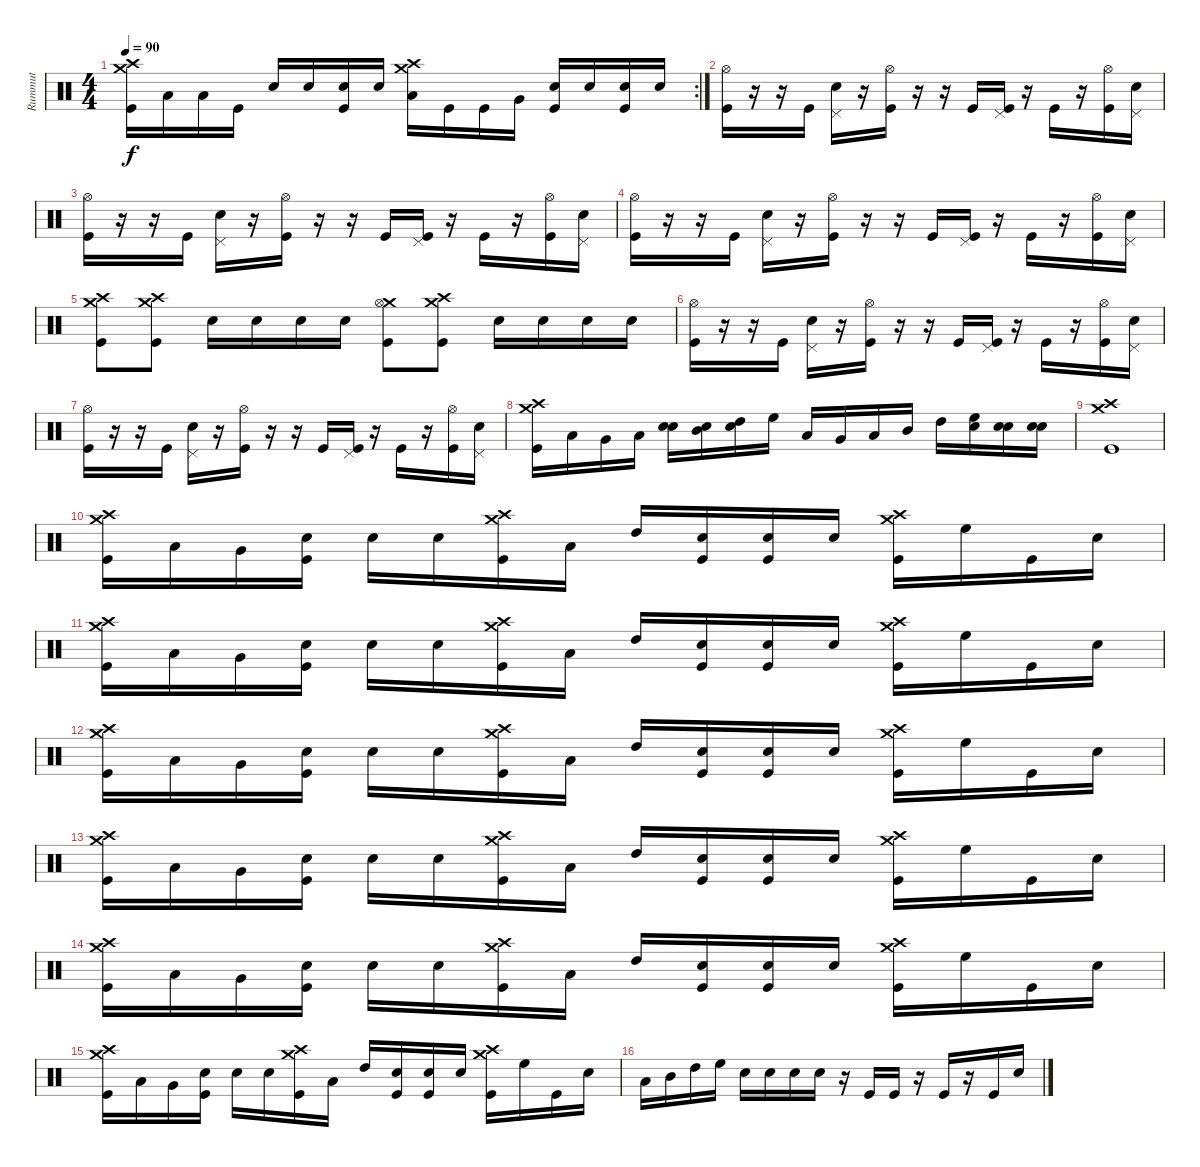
\track ("Rummut" "Rummut") {instrument percussion}
\staff {score}
\articulation defaults
\rc 2
\ts (4 4)
\tempo 90
\clef neutral
\ks c
("Crash medium (hit)" "Crash high (hit)" "Kick (hit)").16{dy f} "Low Tom (hit)".16 "Low Floor Tom (hit)".16 "Kick (hit)".16 "Snare (hit) 2".16 "Snare (hit) 2".16 ("Snare (hit) 2" "Kick (hit)").16 "Snare (hit) 2".16 ("Crash medium (hit)" "Crash high (hit)" "Low Floor Tom (hit)").16 "Kick (hit)".16 "Kick (hit)".16 "Very Low Tom (hit)".16 ("Snare (hit) 2" "Kick (hit)").16 "Snare (hit) 2".16 ("Snare (hit) 2" "Kick (hit)").16 "Snare (hit) 2".16 |
("Hi-Hat (open)" "Kick (hit)").16 r.16 r.16 "Kick (hit)".16 ("Pedal Hi-Hat (hit)" "Snare (hit) 2").16 r.16 ("Hi-Hat (open)" "Kick (hit)").16 r.16 r.16 "Kick (hit)".16 ("Pedal Hi-Hat (hit)" "Kick (hit)").16 r.16 "Kick (hit)".16 r.16 ("Hi-Hat (open)" "Kick (hit)").16 ("Pedal Hi-Hat (hit)" "Snare (hit) 2").16 |
("Hi-Hat (open)" "Kick (hit)").16 r.16 r.16 "Kick (hit)".16 ("Pedal Hi-Hat (hit)" "Snare (hit) 2").16 r.16 ("Hi-Hat (open)" "Kick (hit)").16 r.16 r.16 "Kick (hit)".16 ("Pedal Hi-Hat (hit)" "Kick (hit)").16 r.16 "Kick (hit)".16 r.16 ("Hi-Hat (open)" "Kick (hit)").16 ("Pedal Hi-Hat (hit)" "Snare (hit) 2").16 |
("Hi-Hat (open)" "Kick (hit)").16 r.16 r.16 "Kick (hit)".16 ("Pedal Hi-Hat (hit)" "Snare (hit) 2").16 r.16 ("Hi-Hat (open)" "Kick (hit)").16 r.16 r.16 "Kick (hit)".16 ("Pedal Hi-Hat (hit)" "Kick (hit)").16 r.16 "Kick (hit)".16 r.16 ("Hi-Hat (open)" "Kick (hit)").16 ("Pedal Hi-Hat (hit)" "Snare (hit) 2").16 |
("Crash medium (hit)" "Crash high (hit)" "Kick (hit)").8 ("Crash high (hit)" "Crash medium (hit)" "Kick (hit)").8 "Snare (hit) 2".16 "Snare (hit) 2".16 "Snare (hit) 2".16 "Snare (hit) 2".16 ("Crash medium (hit)" "Hi-Hat (open)" "Kick (hit)").8 ("Crash medium (hit)" "Crash high (hit)" "Kick (hit)").8 "Snare (hit) 2".16 "Snare (hit) 2".16 "Snare (hit) 2".16 "Snare (hit) 2".16 |
("Hi-Hat (open)" "Kick (hit)").16 r.16 r.16 "Kick (hit)".16 ("Pedal Hi-Hat (hit)" "Snare (hit) 2").16 r.16 ("Hi-Hat (open)" "Kick (hit)").16 r.16 r.16 "Kick (hit)".16 ("Pedal Hi-Hat (hit)" "Kick (hit)").16 r.16 "Kick (hit)".16 r.16 ("Hi-Hat (open)" "Kick (hit)").16 ("Pedal Hi-Hat (hit)" "Snare (hit) 2").16 |
("Hi-Hat (open)" "Kick (hit)").16 r.16 r.16 "Kick (hit)".16 ("Pedal Hi-Hat (hit)" "Snare (hit) 2").16 r.16 ("Hi-Hat (open)" "Kick (hit)").16 r.16 r.16 "Kick (hit)".16 ("Pedal Hi-Hat (hit)" "Kick (hit)").16 r.16 "Kick (hit)".16 r.16 ("Hi-Hat (open)" "Kick (hit)").16 ("Pedal Hi-Hat (hit)" "Snare (hit) 2").16 |
("Crash medium (hit)" "Crash high (hit)" "Kick (hit)").16 "Low Floor Tom (hit)".16 "Very Low Tom (hit)".16 "Low Tom (hit)".16 ("Snare (hit) 2" "Snare (hit) 2").16 ("Snare (hit) 2" "Mid Tom (hit)").16 ("Snare (hit) 2" "High Tom (hit)").16 "High Floor Tom (hit)".16 "Low Floor Tom (hit)".16 "Very Low Tom (hit)".16 "Low Tom (hit)".16 "Mid Tom (hit)".16 "High Tom (hit)".16 ("Snare (hit) 2" "High Floor Tom (hit)").16 ("Snare (hit) 2" "Snare (hit) 2").16 ("Snare (hit) 2" "Snare (hit) 2").16 |
("Crash medium (hit)" "Crash high (hit)" "Kick (hit)").1 |
("Crash medium (hit)" "Crash high (hit)" "Kick (hit)").16 "Low Floor Tom (hit)".16 "Very Low Tom (hit)".16 ("Snare (hit) 2" "Kick (hit)").16 "Snare (hit) 2".16 "Snare (hit) 2".16 ("Crash medium (hit)" "Crash high (hit)" "Kick (hit)").16 "Low Tom (hit)".16 "High Tom (hit)".16 ("Snare (hit) 2" "Kick (hit)").16 ("Snare (hit) 2" "Kick (hit)").16 "Snare (hit) 2".16 ("Crash medium (hit)" "Crash high (hit)" "Kick (hit)").16 "High Floor Tom (hit)".16 "Kick (hit)".16 "Snare (hit) 2".16 |
("Crash medium (hit)" "Crash high (hit)" "Kick (hit)").16 "Low Floor Tom (hit)".16 "Very Low Tom (hit)".16 ("Snare (hit) 2" "Kick (hit)").16 "Snare (hit) 2".16 "Snare (hit) 2".16 ("Crash medium (hit)" "Crash high (hit)" "Kick (hit)").16 "Low Tom (hit)".16 "High Tom (hit)".16 ("Snare (hit) 2" "Kick (hit)").16 ("Snare (hit) 2" "Kick (hit)").16 "Snare (hit) 2".16 ("Crash medium (hit)" "Crash high (hit)" "Kick (hit)").16 "High Floor Tom (hit)".16 "Kick (hit)".16 "Snare (hit) 2".16 |
("Crash medium (hit)" "Crash high (hit)" "Kick (hit)").16 "Low Floor Tom (hit)".16 "Very Low Tom (hit)".16 ("Snare (hit) 2" "Kick (hit)").16 "Snare (hit) 2".16 "Snare (hit) 2".16 ("Crash medium (hit)" "Crash high (hit)" "Kick (hit)").16 "Low Tom (hit)".16 "High Tom (hit)".16 ("Snare (hit) 2" "Kick (hit)").16 ("Snare (hit) 2" "Kick (hit)").16 "Snare (hit) 2".16 ("Crash medium (hit)" "Crash high (hit)" "Kick (hit)").16 "High Floor Tom (hit)".16 "Kick (hit)".16 "Snare (hit) 2".16 |
("Crash medium (hit)" "Crash high (hit)" "Kick (hit)").16 "Low Floor Tom (hit)".16 "Very Low Tom (hit)".16 ("Snare (hit) 2" "Kick (hit)").16 "Snare (hit) 2".16 "Snare (hit) 2".16 ("Crash medium (hit)" "Crash high (hit)" "Kick (hit)").16 "Low Tom (hit)".16 "High Tom (hit)".16 ("Snare (hit) 2" "Kick (hit)").16 ("Snare (hit) 2" "Kick (hit)").16 "Snare (hit) 2".16 ("Crash medium (hit)" "Crash high (hit)" "Kick (hit)").16 "High Floor Tom (hit)".16 "Kick (hit)".16 "Snare (hit) 2".16 |
("Crash medium (hit)" "Crash high (hit)" "Kick (hit)").16 "Low Floor Tom (hit)".16 "Very Low Tom (hit)".16 ("Snare (hit) 2" "Kick (hit)").16 "Snare (hit) 2".16 "Snare (hit) 2".16 ("Crash medium (hit)" "Crash high (hit)" "Kick (hit)").16 "Low Tom (hit)".16 "High Tom (hit)".16 ("Snare (hit) 2" "Kick (hit)").16 ("Snare (hit) 2" "Kick (hit)").16 "Snare (hit) 2".16 ("Crash medium (hit)" "Crash high (hit)" "Kick (hit)").16 "High Floor Tom (hit)".16 "Kick (hit)".16 "Snare (hit) 2".16 |
("Crash medium (hit)" "Crash high (hit)" "Kick (hit)").16 "Low Floor Tom (hit)".16 "Very Low Tom (hit)".16 ("Snare (hit) 2" "Kick (hit)").16 "Snare (hit) 2".16 "Snare (hit) 2".16 ("Crash medium (hit)" "Crash high (hit)" "Kick (hit)").16 "Low Tom (hit)".16 "High Tom (hit)".16 ("Snare (hit) 2" "Kick (hit)").16 ("Snare (hit) 2" "Kick (hit)").16 "Snare (hit) 2".16 ("Crash medium (hit)" "Crash high (hit)" "Kick (hit)").16 "High Floor Tom (hit)".16 "Kick (hit)".16 "Snare (hit) 2".16 |
"Low Tom (hit)".16 "Mid Tom (hit)".16 "High Tom (hit)".16 "High Floor Tom (hit)".16 "Snare (hit) 2".16 "Snare (hit) 2".16 "Snare (hit) 2".16 "Snare (hit) 2".16 r.16 "Kick (hit)".16 "Kick (hit)".16 r.16 "Kick (hit)".16 r.16 "Kick (hit)".16 "Snare (hit) 2".16
